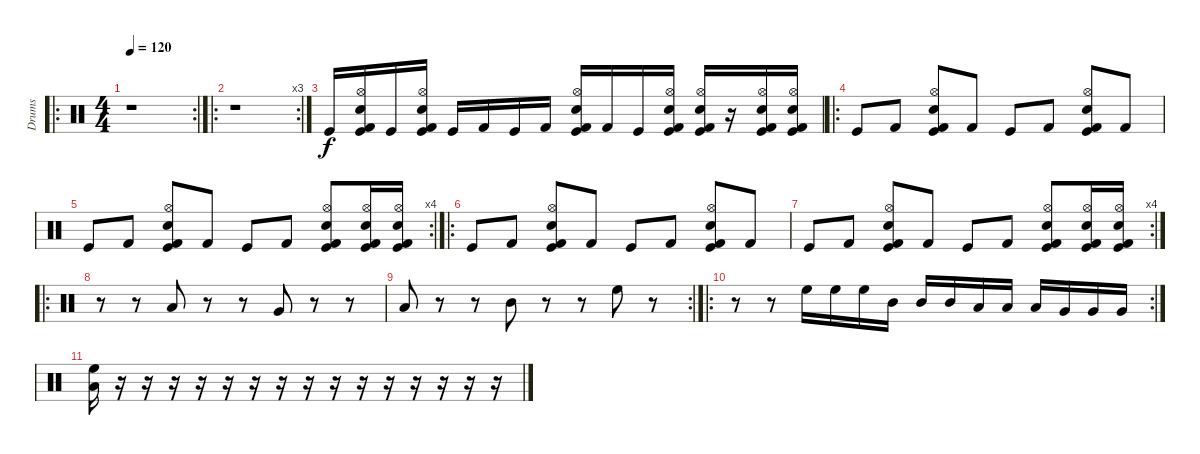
\track ("Drums" "Drums") {instrument percussion}
\staff {score}
\articulation defaults
\ro
\rc 2
\ts (4 4)
\tempo 120
\clef neutral
\ks c
r.1{dy f} |
\ro
\rc 3
r.1 |
"Kick (hit)".16 ("Hi-Hat (open)" "Snare (hit) 2" "Kick (hit)" "Kick (hit) 2").16 "Kick (hit)".16 ("Hi-Hat (open)" "Snare (hit) 2" "Kick (hit)" "Kick (hit) 2").16 "Kick (hit)".16 "Kick (hit) 2".16 "Kick (hit)".16 "Kick (hit) 2".16 ("Hi-Hat (open)" "Snare (hit) 2" "Kick (hit) 2" "Kick (hit)").16 "Kick (hit) 2".16 "Kick (hit)".16 ("Hi-Hat (open)" "Snare (hit) 2" "Kick (hit)" "Kick (hit) 2").16 ("Hi-Hat (open)" "Snare (hit) 2" "Kick (hit) 2" "Kick (hit)").16 r.16 ("Hi-Hat (open)" "Snare (hit) 2" "Kick (hit)" "Kick (hit) 2").16 ("Hi-Hat (open)" "Snare (hit) 2" "Kick (hit) 2" "Kick (hit)").16 |
\ro "Kick (hit)".8 "Kick (hit) 2".8
("Hi-Hat (open)" "Snare (hit) 2" "Kick (hit) 2" "Kick (hit)").8 "Kick (hit) 2".8 "Kick (hit)".8 "Kick (hit) 2".8 ("Hi-Hat (open)" "Snare (hit) 2" "Kick (hit) 2" "Kick (hit)").8 "Kick (hit) 2".8 |
\rc 4 "Kick (hit)".8 "Kick (hit) 2".8
("Hi-Hat (open)" "Snare (hit) 2" "Kick (hit) 2" "Kick (hit)").8 "Kick (hit) 2".8 "Kick (hit)".8 "Kick (hit) 2".8 ("Hi-Hat (open)" "Snare (hit) 2" "Kick (hit) 2" "Kick (hit)").8 ("Hi-Hat (open)" "Snare (hit) 2" "Kick (hit) 2" "Kick (hit)").16 ("Hi-Hat (open)" "Snare (hit) 2" "Kick (hit) 2" "Kick (hit)").16 |
\ro "Kick (hit)".8 "Kick (hit) 2".8
("Hi-Hat (open)" "Snare (hit) 2" "Kick (hit) 2" "Kick (hit)").8 "Kick (hit) 2".8 "Kick (hit)".8 "Kick (hit) 2".8 ("Hi-Hat (open)" "Snare (hit) 2" "Kick (hit) 2" "Kick (hit)").8 "Kick (hit) 2".8 |
\rc 4 "Kick (hit)".8 "Kick (hit) 2".8
("Hi-Hat (open)" "Snare (hit) 2" "Kick (hit) 2" "Kick (hit)").8 "Kick (hit) 2".8 "Kick (hit)".8 "Kick (hit) 2".8 ("Hi-Hat (open)" "Snare (hit) 2" "Kick (hit) 2" "Kick (hit)").8 ("Hi-Hat (open)" "Snare (hit) 2" "Kick (hit) 2" "Kick (hit)").16 ("Hi-Hat (open)" "Snare (hit) 2" "Kick (hit) 2" "Kick (hit)").16 |
\ro
r.8 r.8 "Low Floor Tom (hit)".8 r.8 r.8 "Very Low Tom (hit)".8 r.8 r.8 |
\rc 2 "Low Tom (hit)".8
r.8 r.8 "Mid Tom (hit)".8 r.8 r.8 "High Floor Tom (hit)".8 r.8 |
\ro
\rc 2
r.8 r.8 "High Floor Tom (hit)".16 "High Floor Tom (hit)".16 "High Floor Tom (hit)".16 "Mid Tom (hit)".16 "Mid Tom (hit)".16 "Mid Tom (hit)".16 "Low Tom (hit)".16 "Low Tom (hit)".16 "Low Tom (hit)".16 "Very Low Tom (hit)".16 "Very Low Tom (hit)".16 "Very Low Tom (hit)".16 |
("High Floor Tom (hit)" "Low Floor Tom (hit)").16 r.16 r.16 r.16 r.16 r.16 r.16 r.16 r.16 r.16 r.16 r.16 r.16 r.16 r.16 r.16
